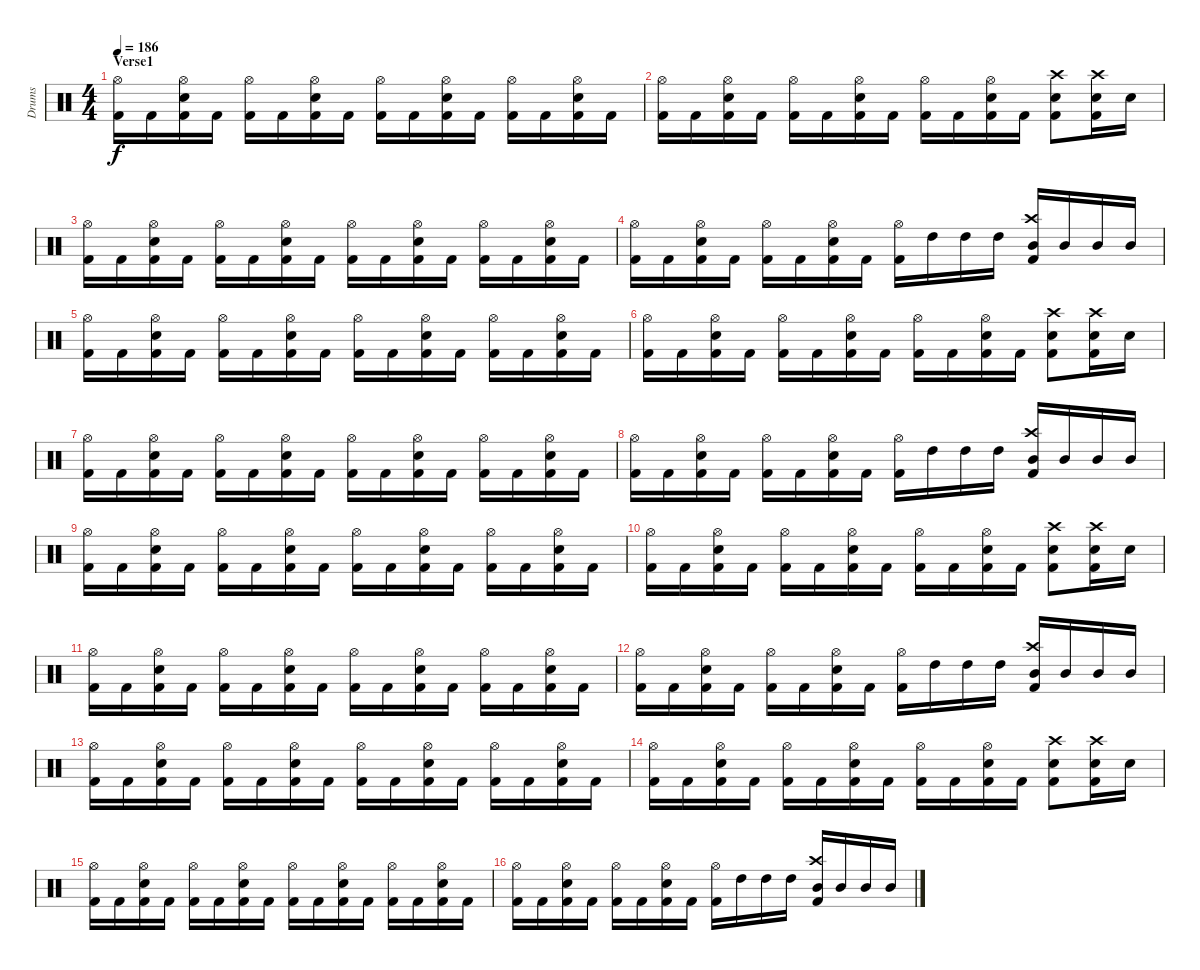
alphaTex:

\track ("Drums" "Drums") {instrument percussion}
\staff {score}
\articulation defaults
\ts (4 4)
\section ("" "Verse1")
\tempo 186
\clef neutral
\ks c
("Hi-Hat (open)" "Kick (hit) 2").16{dy f} "Kick (hit) 2".16 ("Electric Snare (hit)" "Hi-Hat (open)" "Kick (hit) 2").16 "Kick (hit) 2".16 ("Hi-Hat (open)" "Kick (hit) 2").16 "Kick (hit) 2".16 ("Electric Snare (hit)" "Hi-Hat (open)" "Kick (hit) 2").16 "Kick (hit) 2".16 ("Hi-Hat (open)" "Kick (hit) 2").16 "Kick (hit) 2".16 ("Electric Snare (hit)" "Hi-Hat (open)" "Kick (hit) 2").16 "Kick (hit) 2".16 ("Hi-Hat (open)" "Kick (hit) 2").16 "Kick (hit) 2".16 ("Electric Snare (hit)" "Hi-Hat (open)" "Kick (hit) 2").16 "Kick (hit) 2".16 |
("Hi-Hat (open)" "Kick (hit) 2").16 "Kick (hit) 2".16 ("Electric Snare (hit)" "Hi-Hat (open)" "Kick (hit) 2").16 "Kick (hit) 2".16 ("Hi-Hat (open)" "Kick (hit) 2").16 "Kick (hit) 2".16 ("Electric Snare (hit)" "Hi-Hat (open)" "Kick (hit) 2").16 "Kick (hit) 2".16 ("Hi-Hat (open)" "Kick (hit) 2").16 "Kick (hit) 2".16 ("Electric Snare (hit)" "Hi-Hat (open)" "Kick (hit) 2").16 "Kick (hit) 2".16 ("Crash high (hit)" "Electric Snare (hit)" "Kick (hit) 2").8 ("Crash high (hit)" "Electric Snare (hit)" "Kick (hit) 2").16 "Electric Snare (hit)".16 |
("Hi-Hat (open)" "Kick (hit) 2").16 "Kick (hit) 2".16 ("Electric Snare (hit)" "Hi-Hat (open)" "Kick (hit) 2").16 "Kick (hit) 2".16 ("Hi-Hat (open)" "Kick (hit) 2").16 "Kick (hit) 2".16 ("Electric Snare (hit)" "Hi-Hat (open)" "Kick (hit) 2").16 "Kick (hit) 2".16 ("Hi-Hat (open)" "Kick (hit) 2").16 "Kick (hit) 2".16 ("Electric Snare (hit)" "Hi-Hat (open)" "Kick (hit) 2").16 "Kick (hit) 2".16 ("Hi-Hat (open)" "Kick (hit) 2").16 "Kick (hit) 2".16 ("Electric Snare (hit)" "Hi-Hat (open)" "Kick (hit) 2").16 "Kick (hit) 2".16 |
("Hi-Hat (open)" "Kick (hit) 2").16 "Kick (hit) 2".16 ("Electric Snare (hit)" "Hi-Hat (open)" "Kick (hit) 2").16 "Kick (hit) 2".16 ("Hi-Hat (open)" "Kick (hit) 2").16 "Kick (hit) 2".16 ("Electric Snare (hit)" "Hi-Hat (open)" "Kick (hit) 2").16 "Kick (hit) 2".16 ("Hi-Hat (open)" "Kick (hit) 2").16 "High Tom (hit)".16 "High Tom (hit)".16 "High Tom (hit)".16 ("Crash high (hit)" "Mid Tom (hit)" "Kick (hit) 2").16 "Mid Tom (hit)".16 "Mid Tom (hit)".16 "Mid Tom (hit)".16 |
("Hi-Hat (open)" "Kick (hit) 2").16 "Kick (hit) 2".16 ("Electric Snare (hit)" "Hi-Hat (open)" "Kick (hit) 2").16 "Kick (hit) 2".16 ("Hi-Hat (open)" "Kick (hit) 2").16 "Kick (hit) 2".16 ("Electric Snare (hit)" "Hi-Hat (open)" "Kick (hit) 2").16 "Kick (hit) 2".16 ("Hi-Hat (open)" "Kick (hit) 2").16 "Kick (hit) 2".16 ("Electric Snare (hit)" "Hi-Hat (open)" "Kick (hit) 2").16 "Kick (hit) 2".16 ("Hi-Hat (open)" "Kick (hit) 2").16 "Kick (hit) 2".16 ("Electric Snare (hit)" "Hi-Hat (open)" "Kick (hit) 2").16 "Kick (hit) 2".16 |
("Hi-Hat (open)" "Kick (hit) 2").16 "Kick (hit) 2".16 ("Electric Snare (hit)" "Hi-Hat (open)" "Kick (hit) 2").16 "Kick (hit) 2".16 ("Hi-Hat (open)" "Kick (hit) 2").16 "Kick (hit) 2".16 ("Electric Snare (hit)" "Hi-Hat (open)" "Kick (hit) 2").16 "Kick (hit) 2".16 ("Hi-Hat (open)" "Kick (hit) 2").16 "Kick (hit) 2".16 ("Electric Snare (hit)" "Hi-Hat (open)" "Kick (hit) 2").16 "Kick (hit) 2".16 ("Crash high (hit)" "Electric Snare (hit)" "Kick (hit) 2").8 ("Crash high (hit)" "Electric Snare (hit)" "Kick (hit) 2").16 "Electric Snare (hit)".16 |
("Hi-Hat (open)" "Kick (hit) 2").16 "Kick (hit) 2".16 ("Electric Snare (hit)" "Hi-Hat (open)" "Kick (hit) 2").16 "Kick (hit) 2".16 ("Hi-Hat (open)" "Kick (hit) 2").16 "Kick (hit) 2".16 ("Electric Snare (hit)" "Hi-Hat (open)" "Kick (hit) 2").16 "Kick (hit) 2".16 ("Hi-Hat (open)" "Kick (hit) 2").16 "Kick (hit) 2".16 ("Electric Snare (hit)" "Hi-Hat (open)" "Kick (hit) 2").16 "Kick (hit) 2".16 ("Hi-Hat (open)" "Kick (hit) 2").16 "Kick (hit) 2".16 ("Electric Snare (hit)" "Hi-Hat (open)" "Kick (hit) 2").16 "Kick (hit) 2".16 |
("Hi-Hat (open)" "Kick (hit) 2").16 "Kick (hit) 2".16 ("Electric Snare (hit)" "Hi-Hat (open)" "Kick (hit) 2").16 "Kick (hit) 2".16 ("Hi-Hat (open)" "Kick (hit) 2").16 "Kick (hit) 2".16 ("Electric Snare (hit)" "Hi-Hat (open)" "Kick (hit) 2").16 "Kick (hit) 2".16 ("Hi-Hat (open)" "Kick (hit) 2").16 "High Tom (hit)".16 "High Tom (hit)".16 "High Tom (hit)".16 ("Crash high (hit)" "Mid Tom (hit)" "Kick (hit) 2").16 "Mid Tom (hit)".16 "Mid Tom (hit)".16 "Mid Tom (hit)".16 |
("Hi-Hat (open)" "Kick (hit) 2").16 "Kick (hit) 2".16 ("Electric Snare (hit)" "Hi-Hat (open)" "Kick (hit) 2").16 "Kick (hit) 2".16 ("Hi-Hat (open)" "Kick (hit) 2").16 "Kick (hit) 2".16 ("Electric Snare (hit)" "Hi-Hat (open)" "Kick (hit) 2").16 "Kick (hit) 2".16 ("Hi-Hat (open)" "Kick (hit) 2").16 "Kick (hit) 2".16 ("Electric Snare (hit)" "Hi-Hat (open)" "Kick (hit) 2").16 "Kick (hit) 2".16 ("Hi-Hat (open)" "Kick (hit) 2").16 "Kick (hit) 2".16 ("Electric Snare (hit)" "Hi-Hat (open)" "Kick (hit) 2").16 "Kick (hit) 2".16 |
("Hi-Hat (open)" "Kick (hit) 2").16 "Kick (hit) 2".16 ("Electric Snare (hit)" "Hi-Hat (open)" "Kick (hit) 2").16 "Kick (hit) 2".16 ("Hi-Hat (open)" "Kick (hit) 2").16 "Kick (hit) 2".16 ("Electric Snare (hit)" "Hi-Hat (open)" "Kick (hit) 2").16 "Kick (hit) 2".16 ("Hi-Hat (open)" "Kick (hit) 2").16 "Kick (hit) 2".16 ("Electric Snare (hit)" "Hi-Hat (open)" "Kick (hit) 2").16 "Kick (hit) 2".16 ("Crash high (hit)" "Electric Snare (hit)" "Kick (hit) 2").8 ("Crash high (hit)" "Electric Snare (hit)" "Kick (hit) 2").16 "Electric Snare (hit)".16 |
("Hi-Hat (open)" "Kick (hit) 2").16 "Kick (hit) 2".16 ("Electric Snare (hit)" "Hi-Hat (open)" "Kick (hit) 2").16 "Kick (hit) 2".16 ("Hi-Hat (open)" "Kick (hit) 2").16 "Kick (hit) 2".16 ("Electric Snare (hit)" "Hi-Hat (open)" "Kick (hit) 2").16 "Kick (hit) 2".16 ("Hi-Hat (open)" "Kick (hit) 2").16 "Kick (hit) 2".16 ("Electric Snare (hit)" "Hi-Hat (open)" "Kick (hit) 2").16 "Kick (hit) 2".16 ("Hi-Hat (open)" "Kick (hit) 2").16 "Kick (hit) 2".16 ("Electric Snare (hit)" "Hi-Hat (open)" "Kick (hit) 2").16 "Kick (hit) 2".16 |
("Hi-Hat (open)" "Kick (hit) 2").16 "Kick (hit) 2".16 ("Electric Snare (hit)" "Hi-Hat (open)" "Kick (hit) 2").16 "Kick (hit) 2".16 ("Hi-Hat (open)" "Kick (hit) 2").16 "Kick (hit) 2".16 ("Electric Snare (hit)" "Hi-Hat (open)" "Kick (hit) 2").16 "Kick (hit) 2".16 ("Hi-Hat (open)" "Kick (hit) 2").16 "High Tom (hit)".16 "High Tom (hit)".16 "High Tom (hit)".16 ("Crash high (hit)" "Mid Tom (hit)" "Kick (hit) 2").16 "Mid Tom (hit)".16 "Mid Tom (hit)".16 "Mid Tom (hit)".16 |
("Hi-Hat (open)" "Kick (hit) 2").16 "Kick (hit) 2".16 ("Electric Snare (hit)" "Hi-Hat (open)" "Kick (hit) 2").16 "Kick (hit) 2".16 ("Hi-Hat (open)" "Kick (hit) 2").16 "Kick (hit) 2".16 ("Electric Snare (hit)" "Hi-Hat (open)" "Kick (hit) 2").16 "Kick (hit) 2".16 ("Hi-Hat (open)" "Kick (hit) 2").16 "Kick (hit) 2".16 ("Electric Snare (hit)" "Hi-Hat (open)" "Kick (hit) 2").16 "Kick (hit) 2".16 ("Hi-Hat (open)" "Kick (hit) 2").16 "Kick (hit) 2".16 ("Electric Snare (hit)" "Hi-Hat (open)" "Kick (hit) 2").16 "Kick (hit) 2".16 |
("Hi-Hat (open)" "Kick (hit) 2").16 "Kick (hit) 2".16 ("Electric Snare (hit)" "Hi-Hat (open)" "Kick (hit) 2").16 "Kick (hit) 2".16 ("Hi-Hat (open)" "Kick (hit) 2").16 "Kick (hit) 2".16 ("Electric Snare (hit)" "Hi-Hat (open)" "Kick (hit) 2").16 "Kick (hit) 2".16 ("Hi-Hat (open)" "Kick (hit) 2").16 "Kick (hit) 2".16 ("Electric Snare (hit)" "Hi-Hat (open)" "Kick (hit) 2").16 "Kick (hit) 2".16 ("Crash high (hit)" "Electric Snare (hit)" "Kick (hit) 2").8 ("Crash high (hit)" "Electric Snare (hit)" "Kick (hit) 2").16 "Electric Snare (hit)".16 |
("Hi-Hat (open)" "Kick (hit) 2").16 "Kick (hit) 2".16 ("Electric Snare (hit)" "Hi-Hat (open)" "Kick (hit) 2").16 "Kick (hit) 2".16 ("Hi-Hat (open)" "Kick (hit) 2").16 "Kick (hit) 2".16 ("Electric Snare (hit)" "Hi-Hat (open)" "Kick (hit) 2").16 "Kick (hit) 2".16 ("Hi-Hat (open)" "Kick (hit) 2").16 "Kick (hit) 2".16 ("Electric Snare (hit)" "Hi-Hat (open)" "Kick (hit) 2").16 "Kick (hit) 2".16 ("Hi-Hat (open)" "Kick (hit) 2").16 "Kick (hit) 2".16 ("Electric Snare (hit)" "Hi-Hat (open)" "Kick (hit) 2").16 "Kick (hit) 2".16 |
("Hi-Hat (open)" "Kick (hit) 2").16 "Kick (hit) 2".16 ("Electric Snare (hit)" "Hi-Hat (open)" "Kick (hit) 2").16 "Kick (hit) 2".16 ("Hi-Hat (open)" "Kick (hit) 2").16 "Kick (hit) 2".16 ("Electric Snare (hit)" "Hi-Hat (open)" "Kick (hit) 2").16 "Kick (hit) 2".16 ("Hi-Hat (open)" "Kick (hit) 2").16 "High Tom (hit)".16 "High Tom (hit)".16 "High Tom (hit)".16 ("Crash high (hit)" "Mid Tom (hit)" "Kick (hit) 2").16 "Mid Tom (hit)".16 "Mid Tom (hit)".16 "Mid Tom (hit)".16
